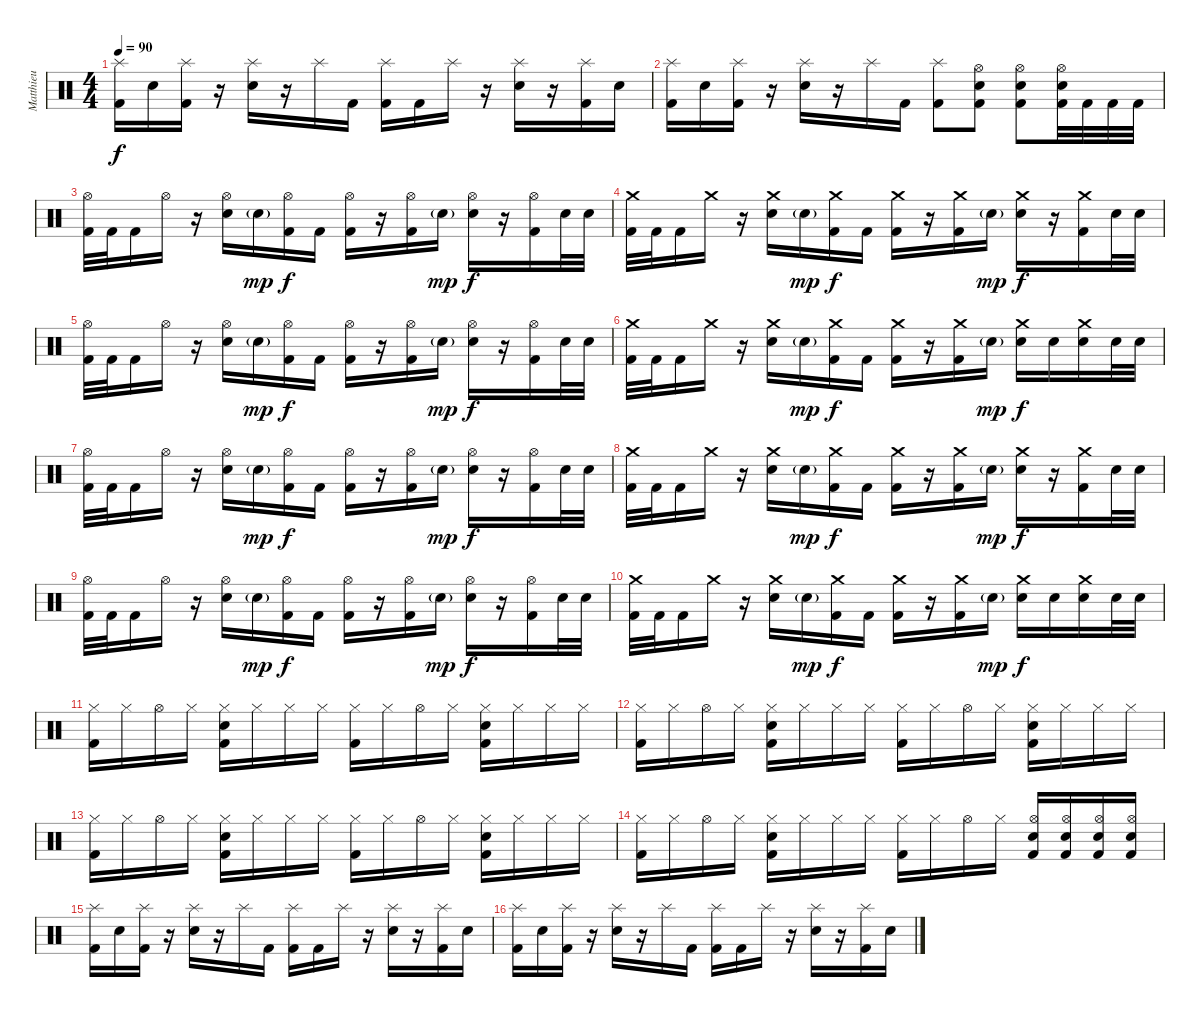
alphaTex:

\track ("Matthieu" "Matthieu") {instrument percussion}
\staff {score}
\articulation defaults
\ts (4 4)
\tempo 90
\clef neutral
\ks c
("Splash (hit)" "Kick (hit) 2").16{dy f} "Electric Snare (hit)".16 ("Splash (hit)" "Kick (hit) 2").16 r.16 ("Splash (hit)" "Electric Snare (hit)").16 r.16 "Splash (hit)".16 "Kick (hit) 2".16 ("Splash (hit)" "Kick (hit) 2").16 "Kick (hit) 2".16 "Splash (hit)".16 r.16 ("Splash (hit)" "Electric Snare (hit)").16 r.16 ("Splash (hit)" "Kick (hit) 2").16 "Electric Snare (hit)".16 |
("Splash (hit)" "Kick (hit) 2").16 "Electric Snare (hit)".16 ("Splash (hit)" "Kick (hit) 2").16 r.16 ("Splash (hit)" "Electric Snare (hit)").16 r.16 "Splash (hit)".16 "Kick (hit) 2".16 ("Splash (hit)" "Kick (hit) 2").8 ("Hi-Hat (open)" "Electric Snare (hit)" "Kick (hit) 2").8 ("Hi-Hat (open)" "Electric Snare (hit)" "Kick (hit) 2").8 ("Hi-Hat (open)" "Electric Snare (hit)" "Kick (hit) 2").32 "Kick (hit) 2".32 "Kick (hit) 2".32 "Kick (hit) 2".32 |
("Hi-Hat (open)" "Kick (hit) 2").32 "Kick (hit) 2".32 "Kick (hit) 2".16 "Hi-Hat (open)".16 r.16 ("Hi-Hat (open)" "Electric Snare (hit)").16 "Electric Snare (hit)"{g}.16{dy mp} ("Hi-Hat (open)" "Kick (hit) 2").16{dy f} "Kick (hit) 2".16 ("Hi-Hat (open)" "Kick (hit) 2").16 r.16 ("Hi-Hat (open)" "Kick (hit) 2").16 "Electric Snare (hit)"{g}.16{dy mp} ("Hi-Hat (open)" "Electric Snare (hit)").16{dy f} r.16 ("Hi-Hat (open)" "Kick (hit) 2").16 "Electric Snare (hit)".32 "Electric Snare (hit)".32 |
("Crash medium (hit)" "Kick (hit) 2").32 "Kick (hit) 2".32 "Kick (hit) 2".16 "Crash medium (hit)".16 r.16 ("Crash medium (hit)" "Electric Snare (hit)").16 "Electric Snare (hit)"{g}.16{dy mp} ("Crash medium (hit)" "Kick (hit) 2").16{dy f} "Kick (hit) 2".16 ("Crash medium (hit)" "Kick (hit) 2").16 r.16 ("Crash medium (hit)" "Kick (hit) 2").16 "Electric Snare (hit)"{g}.16{dy mp} ("Crash medium (hit)" "Electric Snare (hit)").16{dy f} r.16 ("Crash medium (hit)" "Kick (hit) 2").16 "Electric Snare (hit)".32 "Electric Snare (hit)".32 |
("Hi-Hat (open)" "Kick (hit) 2").32 "Kick (hit) 2".32 "Kick (hit) 2".16 "Hi-Hat (open)".16 r.16 ("Hi-Hat (open)" "Electric Snare (hit)").16 "Electric Snare (hit)"{g}.16{dy mp} ("Hi-Hat (open)" "Kick (hit) 2").16{dy f} "Kick (hit) 2".16 ("Hi-Hat (open)" "Kick (hit) 2").16 r.16 ("Hi-Hat (open)" "Kick (hit) 2").16 "Electric Snare (hit)"{g}.16{dy mp} ("Hi-Hat (open)" "Electric Snare (hit)").16{dy f} r.16 ("Hi-Hat (open)" "Kick (hit) 2").16 "Electric Snare (hit)".32 "Electric Snare (hit)".32 |
("Crash medium (hit)" "Kick (hit) 2").32 "Kick (hit) 2".32 "Kick (hit) 2".16 "Crash medium (hit)".16 r.16 ("Crash medium (hit)" "Electric Snare (hit)").16 "Electric Snare (hit)"{g}.16{dy mp} ("Crash medium (hit)" "Kick (hit) 2").16{dy f} "Kick (hit) 2".16 ("Crash medium (hit)" "Kick (hit) 2").16 r.16 ("Crash medium (hit)" "Kick (hit) 2").16 "Electric Snare (hit)"{g}.16{dy mp} ("Crash medium (hit)" "Electric Snare (hit)").16{dy f} "Electric Snare (hit)".16 ("Crash medium (hit)" "Electric Snare (hit)").16 "Electric Snare (hit)".32 "Electric Snare (hit)".32 |
("Hi-Hat (open)" "Kick (hit) 2").32 "Kick (hit) 2".32 "Kick (hit) 2".16 "Hi-Hat (open)".16 r.16 ("Hi-Hat (open)" "Electric Snare (hit)").16 "Electric Snare (hit)"{g}.16{dy mp} ("Hi-Hat (open)" "Kick (hit) 2").16{dy f} "Kick (hit) 2".16 ("Hi-Hat (open)" "Kick (hit) 2").16 r.16 ("Hi-Hat (open)" "Kick (hit) 2").16 "Electric Snare (hit)"{g}.16{dy mp} ("Hi-Hat (open)" "Electric Snare (hit)").16{dy f} r.16 ("Hi-Hat (open)" "Kick (hit) 2").16 "Electric Snare (hit)".32 "Electric Snare (hit)".32 |
("Crash medium (hit)" "Kick (hit) 2").32 "Kick (hit) 2".32 "Kick (hit) 2".16 "Crash medium (hit)".16 r.16 ("Crash medium (hit)" "Electric Snare (hit)").16 "Electric Snare (hit)"{g}.16{dy mp} ("Crash medium (hit)" "Kick (hit) 2").16{dy f} "Kick (hit) 2".16 ("Crash medium (hit)" "Kick (hit) 2").16 r.16 ("Crash medium (hit)" "Kick (hit) 2").16 "Electric Snare (hit)"{g}.16{dy mp} ("Crash medium (hit)" "Electric Snare (hit)").16{dy f} r.16 ("Crash medium (hit)" "Kick (hit) 2").16 "Electric Snare (hit)".32 "Electric Snare (hit)".32 |
("Hi-Hat (open)" "Kick (hit) 2").32 "Kick (hit) 2".32 "Kick (hit) 2".16 "Hi-Hat (open)".16 r.16 ("Hi-Hat (open)" "Electric Snare (hit)").16 "Electric Snare (hit)"{g}.16{dy mp} ("Hi-Hat (open)" "Kick (hit) 2").16{dy f} "Kick (hit) 2".16 ("Hi-Hat (open)" "Kick (hit) 2").16 r.16 ("Hi-Hat (open)" "Kick (hit) 2").16 "Electric Snare (hit)"{g}.16{dy mp} ("Hi-Hat (open)" "Electric Snare (hit)").16{dy f} r.16 ("Hi-Hat (open)" "Kick (hit) 2").16 "Electric Snare (hit)".32 "Electric Snare (hit)".32 |
("Crash medium (hit)" "Kick (hit) 2").32 "Kick (hit) 2".32 "Kick (hit) 2".16 "Crash medium (hit)".16 r.16 ("Crash medium (hit)" "Electric Snare (hit)").16 "Electric Snare (hit)"{g}.16{dy mp} ("Crash medium (hit)" "Kick (hit) 2").16{dy f} "Kick (hit) 2".16 ("Crash medium (hit)" "Kick (hit) 2").16 r.16 ("Crash medium (hit)" "Kick (hit) 2").16 "Electric Snare (hit)"{g}.16{dy mp} ("Crash medium (hit)" "Electric Snare (hit)").16{dy f} "Electric Snare (hit)".16 ("Crash medium (hit)" "Electric Snare (hit)").16 "Electric Snare (hit)".32 "Electric Snare (hit)".32 |
("Hi-Hat (closed)" "Kick (hit) 2").16 "Hi-Hat (closed)".16 "Hi-Hat (open)".16 "Hi-Hat (closed)".16 ("Hi-Hat (closed)" "Snare (hit) 2" "Kick (hit) 2").16 "Hi-Hat (closed)".16 "Hi-Hat (closed)".16 "Hi-Hat (closed)".16 ("Hi-Hat (closed)" "Kick (hit) 2").16 "Hi-Hat (closed)".16 "Hi-Hat (open)".16 "Hi-Hat (closed)".16 ("Hi-Hat (closed)" "Snare (hit) 2" "Kick (hit) 2").16 "Hi-Hat (closed)".16 "Hi-Hat (closed)".16 "Hi-Hat (closed)".16 |
("Hi-Hat (closed)" "Kick (hit) 2").16 "Hi-Hat (closed)".16 "Hi-Hat (open)".16 "Hi-Hat (closed)".16 ("Hi-Hat (closed)" "Snare (hit) 2" "Kick (hit) 2").16 "Hi-Hat (closed)".16 "Hi-Hat (closed)".16 "Hi-Hat (closed)".16 ("Hi-Hat (closed)" "Kick (hit) 2").16 "Hi-Hat (closed)".16 "Hi-Hat (open)".16 "Hi-Hat (closed)".16 ("Hi-Hat (closed)" "Snare (hit) 2" "Kick (hit) 2").16 "Hi-Hat (closed)".16 "Hi-Hat (closed)".16 "Hi-Hat (closed)".16 |
("Hi-Hat (closed)" "Kick (hit) 2").16 "Hi-Hat (closed)".16 "Hi-Hat (open)".16 "Hi-Hat (closed)".16 ("Hi-Hat (closed)" "Snare (hit) 2" "Kick (hit) 2").16 "Hi-Hat (closed)".16 "Hi-Hat (closed)".16 "Hi-Hat (closed)".16 ("Hi-Hat (closed)" "Kick (hit) 2").16 "Hi-Hat (closed)".16 "Hi-Hat (open)".16 "Hi-Hat (closed)".16 ("Hi-Hat (closed)" "Snare (hit) 2" "Kick (hit) 2").16 "Hi-Hat (closed)".16 "Hi-Hat (closed)".16 "Hi-Hat (closed)".16 |
("Hi-Hat (closed)" "Kick (hit) 2").16 "Hi-Hat (closed)".16 "Hi-Hat (open)".16 "Hi-Hat (closed)".16 ("Hi-Hat (closed)" "Snare (hit) 2" "Kick (hit) 2").16 "Hi-Hat (closed)".16 "Hi-Hat (closed)".16 "Hi-Hat (closed)".16 ("Hi-Hat (closed)" "Kick (hit) 2").16 "Hi-Hat (closed)".16 "Hi-Hat (open)".16 "Hi-Hat (closed)".16 ("Hi-Hat (open)" "Snare (hit) 2" "Kick (hit) 2").16 ("Hi-Hat (open)" "Snare (hit) 2" "Kick (hit) 2").16 ("Hi-Hat (open)" "Snare (hit) 2" "Kick (hit) 2").16 ("Hi-Hat (open)" "Snare (hit) 2" "Kick (hit) 2").16 |
("Splash (hit)" "Kick (hit) 2").16 "Electric Snare (hit)".16 ("Splash (hit)" "Kick (hit) 2").16 r.16 ("Splash (hit)" "Electric Snare (hit)").16 r.16 "Splash (hit)".16 "Kick (hit) 2".16 ("Splash (hit)" "Kick (hit) 2").16 "Kick (hit) 2".16 "Splash (hit)".16 r.16 ("Splash (hit)" "Electric Snare (hit)").16 r.16 ("Splash (hit)" "Kick (hit) 2").16 "Electric Snare (hit)".16 |
("Splash (hit)" "Kick (hit) 2").16 "Electric Snare (hit)".16 ("Splash (hit)" "Kick (hit) 2").16 r.16 ("Splash (hit)" "Electric Snare (hit)").16 r.16 "Splash (hit)".16 "Kick (hit) 2".16 ("Splash (hit)" "Kick (hit) 2").16 "Kick (hit) 2".16 "Splash (hit)".16 r.16 ("Splash (hit)" "Electric Snare (hit)").16 r.16 ("Splash (hit)" "Kick (hit) 2").16 "Electric Snare (hit)".16
